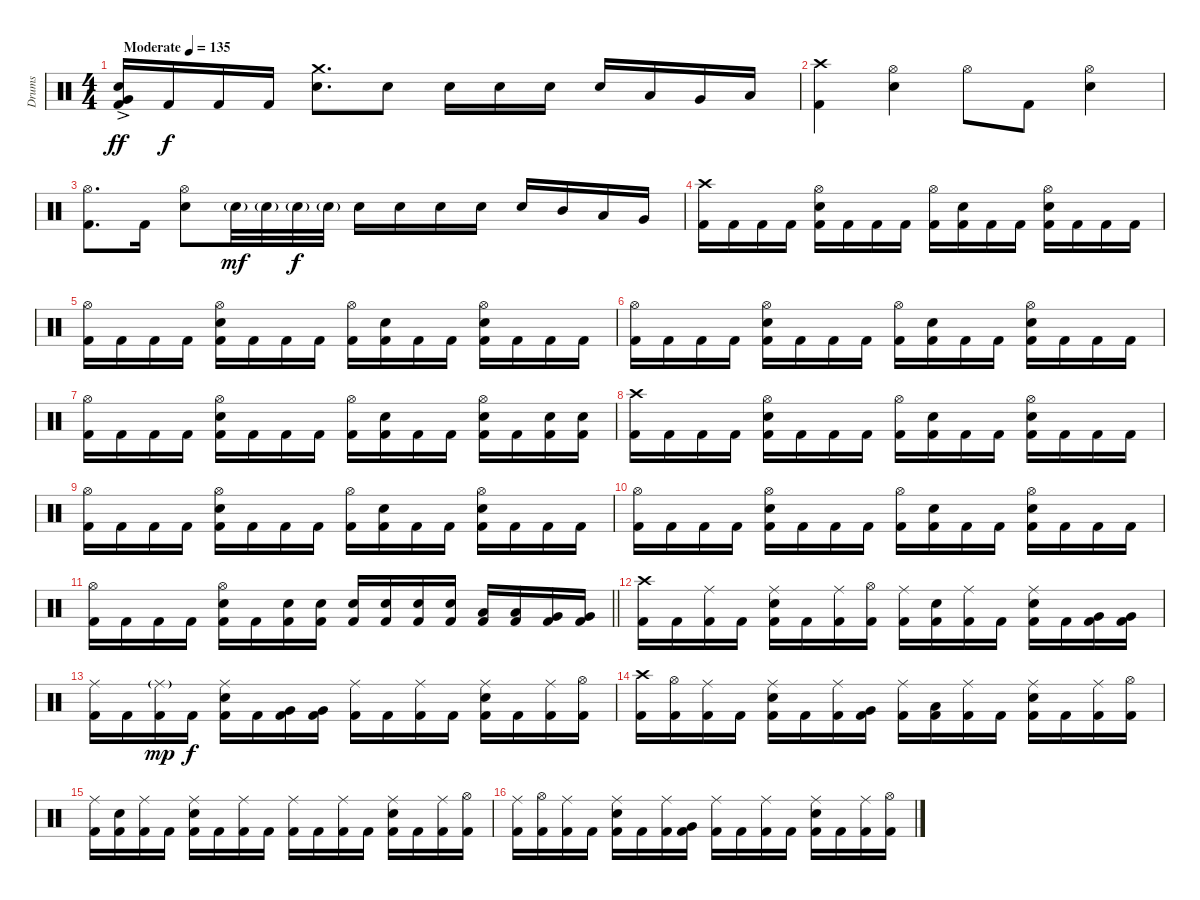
\track ("Drums" "Drums") {instrument percussion}
\staff {score}
\articulation defaults
\ts (4 4)
\tempo (135 "Moderate")
\clef neutral
\ks c
("Very Low Tom (hit)"{ac} "Electric Snare (hit)"{ac} "Kick (hit) 2").16{dy ff} "Kick (hit) 2".16{dy f} "Kick (hit) 2".16 "Kick (hit) 2".16 ("Crash medium (hit)" "Electric Snare (hit)").8{d} "Electric Snare (hit)".8 "Electric Snare (hit)".16 "Electric Snare (hit)".16 "Electric Snare (hit)".16 "Electric Snare (hit)".16 "Low Tom (hit)".16 "Very Low Tom (hit)".16 "Low Floor Tom (hit)".16 |
("Crash high (hit)" "Kick (hit) 2").4 ("Hi-Hat (open)" "Electric Snare (hit)").4 "Hi-Hat (open)".8 "Kick (hit) 2".8 ("Hi-Hat (open)" "Electric Snare (hit)").4 |
("Hi-Hat (open)" "Kick (hit) 2").8{d} "Kick (hit) 2".16 ("Hi-Hat (open)" "Electric Snare (hit)").8 "Electric Snare (hit)"{g}.32{dy mf} "Electric Snare (hit)"{g}.32 "Electric Snare (hit)"{g}.32{dy f} "Electric Snare (hit)"{g}.32 "Electric Snare (hit)".16 "Electric Snare (hit)".16 "Electric Snare (hit)".16 "Electric Snare (hit)".16 "Electric Snare (hit)".16 "Mid Tom (hit)".16 "Low Tom (hit)".16 "Very Low Tom (hit)".16 |
("Crash high (hit)" "Kick (hit) 2").16 "Kick (hit) 2".16 "Kick (hit) 2".16 "Kick (hit) 2".16 ("Hi-Hat (open)" "Electric Snare (hit)" "Kick (hit) 2").16 "Kick (hit) 2".16 "Kick (hit) 2".16 "Kick (hit) 2".16 ("Hi-Hat (open)" "Kick (hit) 2").16 ("Electric Snare (hit)" "Kick (hit) 2").16 "Kick (hit) 2".16 "Kick (hit) 2".16 ("Hi-Hat (open)" "Electric Snare (hit)" "Kick (hit) 2").16 "Kick (hit) 2".16 "Kick (hit) 2".16 "Kick (hit) 2".16 |
("Hi-Hat (open)" "Kick (hit) 2").16 "Kick (hit) 2".16 "Kick (hit) 2".16 "Kick (hit) 2".16 ("Hi-Hat (open)" "Electric Snare (hit)" "Kick (hit) 2").16 "Kick (hit) 2".16 "Kick (hit) 2".16 "Kick (hit) 2".16 ("Hi-Hat (open)" "Kick (hit) 2").16 ("Electric Snare (hit)" "Kick (hit) 2").16 "Kick (hit) 2".16 "Kick (hit) 2".16 ("Hi-Hat (open)" "Electric Snare (hit)" "Kick (hit) 2").16 "Kick (hit) 2".16 "Kick (hit) 2".16 "Kick (hit) 2".16 |
("Hi-Hat (open)" "Kick (hit) 2").16 "Kick (hit) 2".16 "Kick (hit) 2".16 "Kick (hit) 2".16 ("Hi-Hat (open)" "Electric Snare (hit)" "Kick (hit) 2").16 "Kick (hit) 2".16 "Kick (hit) 2".16 "Kick (hit) 2".16 ("Hi-Hat (open)" "Kick (hit) 2").16 ("Electric Snare (hit)" "Kick (hit) 2").16 "Kick (hit) 2".16 "Kick (hit) 2".16 ("Hi-Hat (open)" "Electric Snare (hit)" "Kick (hit) 2").16 "Kick (hit) 2".16 "Kick (hit) 2".16 "Kick (hit) 2".16 |
("Hi-Hat (open)" "Kick (hit) 2").16 "Kick (hit) 2".16 "Kick (hit) 2".16 "Kick (hit) 2".16 ("Hi-Hat (open)" "Electric Snare (hit)" "Kick (hit) 2").16 "Kick (hit) 2".16 "Kick (hit) 2".16 "Kick (hit) 2".16 ("Hi-Hat (open)" "Kick (hit) 2").16 ("Electric Snare (hit)" "Kick (hit) 2").16 "Kick (hit) 2".16 "Kick (hit) 2".16 ("Hi-Hat (open)" "Electric Snare (hit)" "Kick (hit) 2").16 "Kick (hit) 2".16 ("Electric Snare (hit)" "Kick (hit) 2").16 ("Electric Snare (hit)" "Kick (hit) 2").16 |
("Crash high (hit)" "Kick (hit) 2").16 "Kick (hit) 2".16 "Kick (hit) 2".16 "Kick (hit) 2".16 ("Hi-Hat (open)" "Electric Snare (hit)" "Kick (hit) 2").16 "Kick (hit) 2".16 "Kick (hit) 2".16 "Kick (hit) 2".16 ("Hi-Hat (open)" "Kick (hit) 2").16 ("Electric Snare (hit)" "Kick (hit) 2").16 "Kick (hit) 2".16 "Kick (hit) 2".16 ("Hi-Hat (open)" "Electric Snare (hit)" "Kick (hit) 2").16 "Kick (hit) 2".16 "Kick (hit) 2".16 "Kick (hit) 2".16 |
("Hi-Hat (open)" "Kick (hit) 2").16 "Kick (hit) 2".16 "Kick (hit) 2".16 "Kick (hit) 2".16 ("Hi-Hat (open)" "Electric Snare (hit)" "Kick (hit) 2").16 "Kick (hit) 2".16 "Kick (hit) 2".16 "Kick (hit) 2".16 ("Hi-Hat (open)" "Kick (hit) 2").16 ("Electric Snare (hit)" "Kick (hit) 2").16 "Kick (hit) 2".16 "Kick (hit) 2".16 ("Hi-Hat (open)" "Electric Snare (hit)" "Kick (hit) 2").16 "Kick (hit) 2".16 "Kick (hit) 2".16 "Kick (hit) 2".16 |
("Hi-Hat (open)" "Kick (hit) 2").16 "Kick (hit) 2".16 "Kick (hit) 2".16 "Kick (hit) 2".16 ("Hi-Hat (open)" "Electric Snare (hit)" "Kick (hit) 2").16 "Kick (hit) 2".16 "Kick (hit) 2".16 "Kick (hit) 2".16 ("Hi-Hat (open)" "Kick (hit) 2").16 ("Electric Snare (hit)" "Kick (hit) 2").16 "Kick (hit) 2".16 "Kick (hit) 2".16 ("Hi-Hat (open)" "Electric Snare (hit)" "Kick (hit) 2").16 "Kick (hit) 2".16 "Kick (hit) 2".16 "Kick (hit) 2".16 |
\barLineRight lightlight
("Hi-Hat (open)" "Kick (hit) 2").16 "Kick (hit) 2".16 "Kick (hit) 2".16 "Kick (hit) 2".16 ("Hi-Hat (open)" "Electric Snare (hit)" "Kick (hit) 2").16 "Kick (hit) 2".16 ("Electric Snare (hit)" "Kick (hit) 2").16 ("Electric Snare (hit)" "Kick (hit) 2").16 ("Electric Snare (hit)" "Kick (hit) 2").16 ("Electric Snare (hit)" "Kick (hit) 2").16 ("Electric Snare (hit)" "Kick (hit) 2").16 ("Electric Snare (hit)" "Kick (hit) 2").16 ("Low Tom (hit)" "Kick (hit) 2").16 ("Low Tom (hit)" "Kick (hit) 2").16 ("Very Low Tom (hit)" "Kick (hit) 2").16 ("Very Low Tom (hit)" "Kick (hit) 2").16 |
("Crash high (hit)" "Kick (hit) 2").16 "Kick (hit) 2".16 ("Ride (middle)" "Kick (hit) 2").16 "Kick (hit) 2".16 ("Ride (middle)" "Electric Snare (hit)" "Kick (hit) 2").16 "Kick (hit) 2".16 ("Ride (middle)" "Kick (hit) 2").16 ("Hi-Hat (open)" "Kick (hit) 2").16 ("Ride (middle)" "Kick (hit) 2").16 ("Electric Snare (hit)" "Kick (hit) 2").16 ("Ride (middle)" "Kick (hit) 2").16 "Kick (hit) 2".16 ("Ride (middle)" "Electric Snare (hit)" "Kick (hit) 2").16 "Kick (hit) 2".16 ("Very Low Tom (hit)" "Kick (hit) 2").16 ("Very Low Tom (hit)" "Kick (hit) 2").16 |
("Ride (middle)" "Kick (hit) 2").16 "Kick (hit) 2".16 ("Ride (middle)"{g} "Kick (hit) 2").16{dy mp} "Kick (hit) 2".16{dy f} ("Ride (middle)" "Electric Snare (hit)" "Kick (hit) 2").16 "Kick (hit) 2".16 ("Very Low Tom (hit)" "Kick (hit) 2").16 ("Very Low Tom (hit)" "Kick (hit) 2").16 ("Ride (middle)" "Kick (hit) 2").16 "Kick (hit) 2".16 ("Ride (middle)" "Kick (hit) 2").16 "Kick (hit) 2".16 ("Ride (middle)" "Electric Snare (hit)" "Kick (hit) 2").16 "Kick (hit) 2".16 ("Ride (middle)" "Kick (hit) 2").16 ("Hi-Hat (open)" "Kick (hit) 2").16 |
("Crash high (hit)" "Kick (hit) 2").16 ("Hi-Hat (open)" "Kick (hit) 2").16 ("Ride (middle)" "Kick (hit) 2").16 "Kick (hit) 2".16 ("Ride (middle)" "Electric Snare (hit)" "Kick (hit) 2").16 "Kick (hit) 2".16 ("Ride (middle)" "Kick (hit) 2").16 ("Very Low Tom (hit)" "Kick (hit) 2").16 ("Ride (middle)" "Kick (hit) 2").16 ("Low Floor Tom (hit)" "Kick (hit) 2").16 ("Ride (middle)" "Kick (hit) 2").16 "Kick (hit) 2".16 ("Ride (middle)" "Electric Snare (hit)" "Kick (hit) 2").16 "Kick (hit) 2".16 ("Ride (middle)" "Kick (hit) 2").16 ("Hi-Hat (open)" "Kick (hit) 2").16 |
("Ride (middle)" "Kick (hit) 2").16 ("Electric Snare (hit)" "Kick (hit) 2").16 ("Ride (middle)" "Kick (hit) 2").16 "Kick (hit) 2".16 ("Ride (middle)" "Electric Snare (hit)" "Kick (hit) 2").16 "Kick (hit) 2".16 ("Ride (middle)" "Kick (hit) 2").16 "Kick (hit) 2".16 ("Ride (middle)" "Kick (hit) 2").16 "Kick (hit) 2".16 ("Ride (middle)" "Kick (hit) 2").16 "Kick (hit) 2".16 ("Ride (middle)" "Electric Snare (hit)" "Kick (hit) 2").16 "Kick (hit) 2".16 ("Ride (middle)" "Kick (hit) 2").16 ("Hi-Hat (open)" "Kick (hit) 2").16 |
("Ride (middle)" "Kick (hit) 2").16 ("Hi-Hat (open)" "Kick (hit) 2").16 ("Ride (middle)" "Kick (hit) 2").16 "Kick (hit) 2".16 ("Ride (middle)" "Electric Snare (hit)" "Kick (hit) 2").16 "Kick (hit) 2".16 ("Ride (middle)" "Kick (hit) 2").16 ("Very Low Tom (hit)" "Kick (hit) 2").16 ("Ride (middle)" "Kick (hit) 2").16 "Kick (hit) 2".16 ("Ride (middle)" "Kick (hit) 2").16 "Kick (hit) 2".16 ("Ride (middle)" "Electric Snare (hit)" "Kick (hit) 2").16 "Kick (hit) 2".16 ("Ride (middle)" "Kick (hit) 2").16 ("Hi-Hat (open)" "Kick (hit) 2").16
